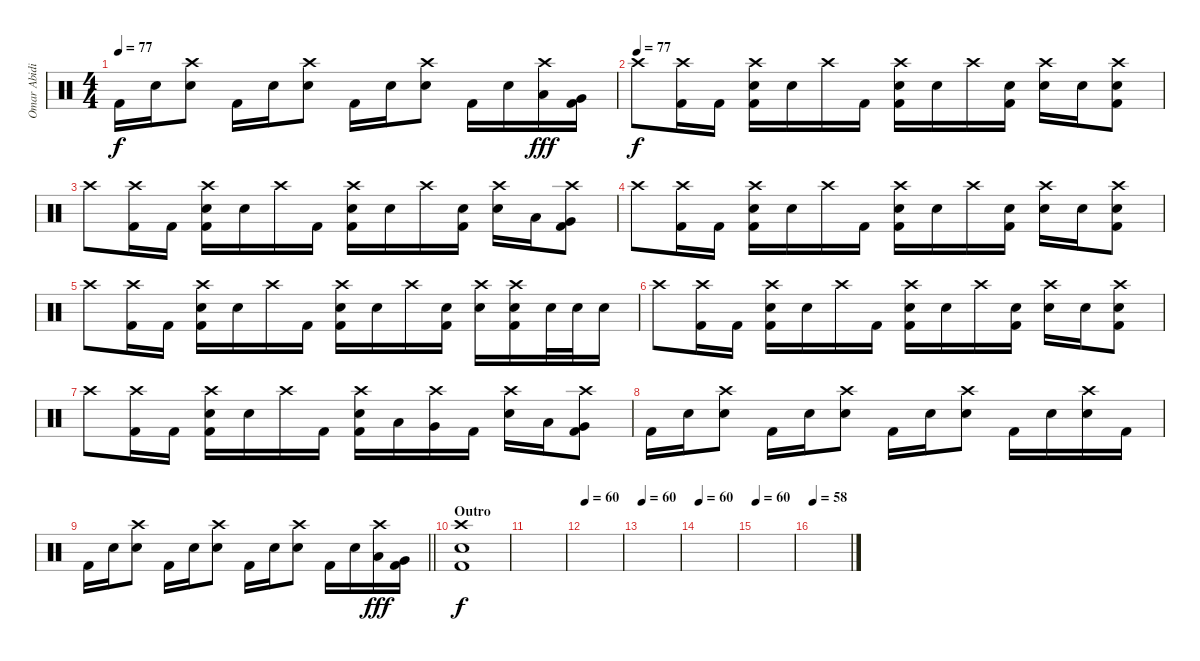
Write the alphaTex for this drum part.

\track ("Omar Abidi" "Omar Abidi") {instrument percussion}
\staff {score}
\articulation defaults
\ts (4 4)
\tempo 77
\clef neutral
\ks c "Kick (hit) 2".16{dy f} "Electric Snare (hit)".16
("Crash high (hit)" "Electric Snare (hit)").8 "Kick (hit) 2".16 "Electric Snare (hit)".16 ("Crash high (hit)" "Electric Snare (hit)").8 "Kick (hit) 2".16 "Electric Snare (hit)".16 ("Crash high (hit)" "Electric Snare (hit)").8 "Kick (hit) 2".16 "Electric Snare (hit)".16 ("Crash high (hit)" "Low Tom (hit)").16{dy fff} ("Very Low Tom (hit)" "Kick (hit) 2").16 |
\tempo (77)
"Crash high (hit)".8{dy f volume 14} ("Crash high (hit)" "Kick (hit) 2").16 "Kick (hit) 2".16 ("Crash high (hit)" "Electric Snare (hit)" "Kick (hit) 2").16 "Electric Snare (hit)".16 "Crash high (hit)".16 "Kick (hit) 2".16 ("Crash high (hit)" "Electric Snare (hit)" "Kick (hit) 2").16 "Electric Snare (hit)".16 "Crash high (hit)".16 ("Electric Snare (hit)" "Kick (hit) 2").16 ("Crash high (hit)" "Electric Snare (hit)").16 "Electric Snare (hit)".16 ("Crash high (hit)" "Electric Snare (hit)" "Kick (hit) 2").8 |
"Crash high (hit)".8{volume 14} ("Crash high (hit)" "Kick (hit) 2").16 "Kick (hit) 2".16 ("Crash high (hit)" "Electric Snare (hit)" "Kick (hit) 2").16 "Electric Snare (hit)".16 "Crash high (hit)".16 "Kick (hit) 2".16 ("Crash high (hit)" "Electric Snare (hit)" "Kick (hit) 2").16 "Electric Snare (hit)".16 "Crash high (hit)".16 ("Electric Snare (hit)" "Kick (hit) 2").16 ("Crash high (hit)" "Electric Snare (hit)").16 "Low Tom (hit)".16 ("Crash high (hit)" "Very Low Tom (hit)" "Kick (hit) 2").8 |
"Crash high (hit)".8{volume 14} ("Crash high (hit)" "Kick (hit) 2").16 "Kick (hit) 2".16 ("Crash high (hit)" "Electric Snare (hit)" "Kick (hit) 2").16 "Electric Snare (hit)".16 "Crash high (hit)".16 "Kick (hit) 2".16 ("Crash high (hit)" "Electric Snare (hit)" "Kick (hit) 2").16 "Electric Snare (hit)".16 "Crash high (hit)".16 ("Electric Snare (hit)" "Kick (hit) 2").16 ("Crash high (hit)" "Electric Snare (hit)").16 "Electric Snare (hit)".16 ("Crash high (hit)" "Electric Snare (hit)" "Kick (hit) 2").8 |
"Crash high (hit)".8{volume 14} ("Crash high (hit)" "Kick (hit) 2").16 "Kick (hit) 2".16 ("Crash high (hit)" "Electric Snare (hit)" "Kick (hit) 2").16 "Electric Snare (hit)".16 "Crash high (hit)".16 "Kick (hit) 2".16 ("Crash high (hit)" "Electric Snare (hit)" "Kick (hit) 2").16 "Electric Snare (hit)".16 "Crash high (hit)".16 ("Electric Snare (hit)" "Kick (hit) 2").16 ("Crash high (hit)" "Electric Snare (hit)").16 ("Crash high (hit)" "Electric Snare (hit)" "Kick (hit) 2").16 "Electric Snare (hit)".32 "Electric Snare (hit)".32 "Electric Snare (hit)".16 |
"Crash high (hit)".8{volume 14} ("Crash high (hit)" "Kick (hit) 2").16 "Kick (hit) 2".16 ("Crash high (hit)" "Electric Snare (hit)" "Kick (hit) 2").16 "Electric Snare (hit)".16 "Crash high (hit)".16 "Kick (hit) 2".16 ("Crash high (hit)" "Electric Snare (hit)" "Kick (hit) 2").16 "Electric Snare (hit)".16 "Crash high (hit)".16 ("Electric Snare (hit)" "Kick (hit) 2").16 ("Crash high (hit)" "Electric Snare (hit)").16 "Electric Snare (hit)".16 ("Crash high (hit)" "Electric Snare (hit)" "Kick (hit) 2").8 |
"Crash high (hit)".8{volume 14} ("Crash high (hit)" "Kick (hit) 2").16 "Kick (hit) 2".16 ("Crash high (hit)" "Electric Snare (hit)" "Kick (hit) 2").16 "Electric Snare (hit)".16 "Crash high (hit)".16 "Kick (hit) 2".16 ("Crash high (hit)" "Electric Snare (hit)" "Kick (hit) 2").16 "Low Tom (hit)".16 ("Crash high (hit)" "Very Low Tom (hit)").16 "Kick (hit) 2".16 ("Crash high (hit)" "Electric Snare (hit)").16 "Low Tom (hit)".16 ("Crash high (hit)" "Very Low Tom (hit)" "Kick (hit) 2").8 |
"Kick (hit) 2".16 "Electric Snare (hit)".16 ("Crash high (hit)" "Electric Snare (hit)").8 "Kick (hit) 2".16 "Electric Snare (hit)".16 ("Crash high (hit)" "Electric Snare (hit)").8 "Kick (hit) 2".16 "Electric Snare (hit)".16 ("Crash high (hit)" "Electric Snare (hit)").8 "Kick (hit) 2".16 "Electric Snare (hit)".16 ("Crash high (hit)" "Electric Snare (hit)").16 "Kick (hit) 2".16 |
\barLineRight lightlight "Kick (hit) 2".16 "Electric Snare (hit)".16
("Crash high (hit)" "Electric Snare (hit)").8 "Kick (hit) 2".16 "Electric Snare (hit)".16 ("Crash high (hit)" "Electric Snare (hit)").8 "Kick (hit) 2".16 "Electric Snare (hit)".16 ("Crash high (hit)" "Electric Snare (hit)").8 "Kick (hit) 2".16 "Electric Snare (hit)".16 ("Crash high (hit)" "Low Tom (hit)").16{dy fff} ("Very Low Tom (hit)" "Kick (hit) 2").16 |
\section ("" "Outro")
("Crash high (hit)" "Electric Snare (hit)" "Kick (hit) 2").1{dy f} |
|
\tempo 60
|
\tempo 60
|
\tempo 60
|
\tempo 60
|
\tempo 58
